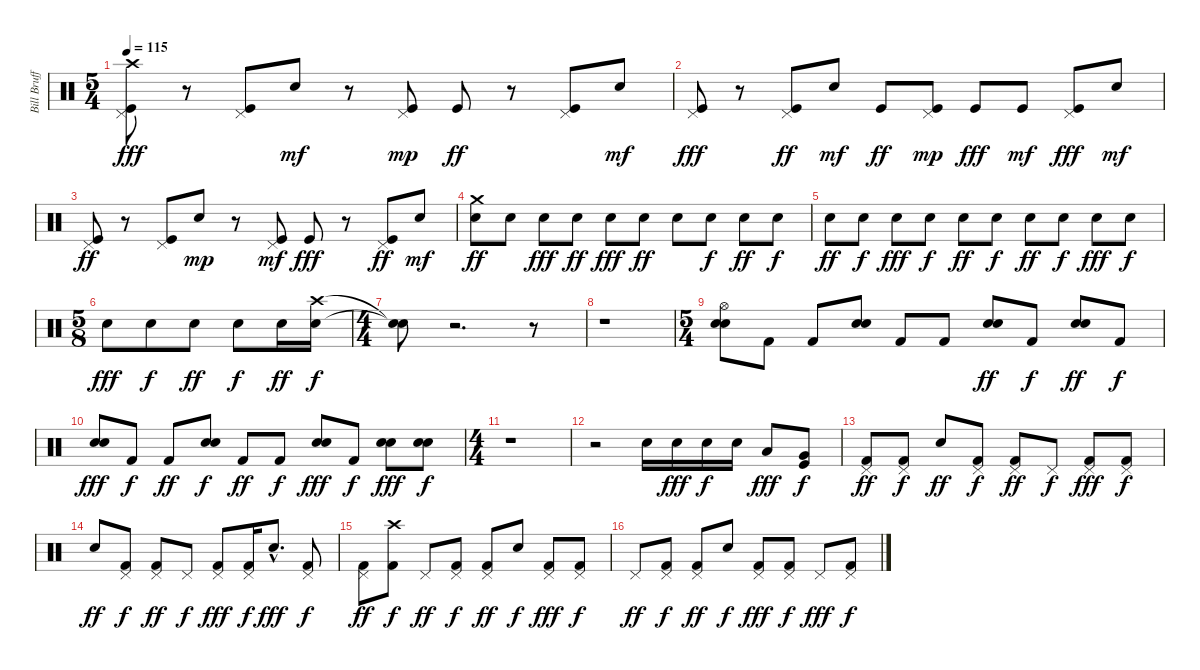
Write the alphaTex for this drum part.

\track ("Bill Brufford Drums" "Bill Bruff") {instrument percussion}
\staff {score}
\articulation defaults
\ts (5 4)
\tempo 115
\clef neutral
\ks c
("Crash high (hit)" "Pedal Hi-Hat (hit)" "Kick (hit)").8{dy fff} r.8 ("Pedal Hi-Hat (hit)" "Kick (hit)").8 "Electric Snare (hit)".8{dy mf} r.8 ("Pedal Hi-Hat (hit)" "Kick (hit)").8{dy mp} "Kick (hit)".8{dy ff} r.8 ("Pedal Hi-Hat (hit)" "Kick (hit)").8 "Electric Snare (hit)".8{dy mf} |
("Pedal Hi-Hat (hit)" "Kick (hit)").8{dy fff} r.8 ("Pedal Hi-Hat (hit)" "Kick (hit)").8{dy ff} "Electric Snare (hit)".8{dy mf} "Kick (hit)".8{dy ff} ("Pedal Hi-Hat (hit)" "Kick (hit)").8{dy mp} "Kick (hit)".8{dy fff} "Kick (hit)".8{dy mf} ("Pedal Hi-Hat (hit)" "Kick (hit)").8{dy fff} "Electric Snare (hit)".8{dy mf} |
("Pedal Hi-Hat (hit)" "Kick (hit)").8{dy ff} r.8 ("Pedal Hi-Hat (hit)" "Kick (hit)").8 "Electric Snare (hit)".8{dy mp} r.8 ("Pedal Hi-Hat (hit)" "Kick (hit)").8{dy mf} "Kick (hit)".8{dy fff} r.8 ("Pedal Hi-Hat (hit)" "Kick (hit)").8{dy ff} "Electric Snare (hit)".8{dy mf} |
("Crash medium (hit)" "Snare (hit) 2").8{dy ff} "Snare (hit) 2".8 "Snare (hit) 2".8{dy fff} "Snare (hit) 2".8{dy ff} "Snare (hit) 2".8{dy fff} "Snare (hit) 2".8{dy ff} "Snare (hit) 2".8 "Snare (hit) 2".8{dy f} "Snare (hit) 2".8{dy ff} "Snare (hit) 2".8{dy f} |
"Snare (hit) 2".8{dy ff} "Snare (hit) 2".8{dy f} "Snare (hit) 2".8{dy fff} "Snare (hit) 2".8{dy f} "Snare (hit) 2".8{dy ff} "Snare (hit) 2".8{dy f} "Snare (hit) 2".8{dy ff} "Snare (hit) 2".8{dy f} "Snare (hit) 2".8{dy fff} "Snare (hit) 2".8{dy f} |
\ts (5 8)
"Snare (hit) 2".8{dy fff} "Snare (hit) 2".8{dy f} "Snare (hit) 2".8{dy ff} "Snare (hit) 2".8{dy f} "Electric Snare (hit)".16{dy ff} ("Crash high (hit)" "Snare (hit) 2").16{dy f} |
\ts (4 4)
("Snare (hit)"{t} "Snare (hit)"{t}).8 r.2{d} r.8 |
r.1 |
\ts (5 4)
("Snare (hit) 2" "Hi-Hat (open)" "Electric Snare (hit)").8 "Kick (hit) 2".8 "Kick (hit) 2".8 ("Electric Snare (hit)" "Snare (hit) 2").8 "Kick (hit) 2".8 "Kick (hit) 2".8 ("Snare (hit) 2" "Electric Snare (hit)").8{dy ff} "Kick (hit) 2".8{dy f} ("Snare (hit) 2" "Electric Snare (hit)").8{dy ff} "Kick (hit) 2".8{dy f} |
("Snare (hit) 2" "Electric Snare (hit)").8{dy fff} "Kick (hit) 2".8{dy f} "Kick (hit) 2".8{dy ff} ("Snare (hit) 2" "Electric Snare (hit)").8{dy f} "Kick (hit) 2".8{dy ff} "Kick (hit) 2".8{dy f} ("Electric Snare (hit)" "Snare (hit) 2").8{dy fff} "Kick (hit) 2".8{dy f} ("Snare (hit) 2" "Electric Snare (hit)").8{dy fff} ("Electric Snare (hit)" "Snare (hit) 2").8{dy f} |
\ts (4 4)
r.1 |
r.2 "Electric Snare (hit)".16 "Electric Snare (hit)".16{dy fff} "Electric Snare (hit)".16{dy f} "Electric Snare (hit)".16 "Low Tom (hit)".8{dy fff} ("Very Low Tom (hit)" "Kick (hit)").8{dy f} |
("Pedal Hi-Hat (hit)" "Kick (hit) 2").8{dy ff} ("Pedal Hi-Hat (hit)" "Kick (hit) 2").8{dy f} "Electric Snare (hit)".8{dy ff} ("Pedal Hi-Hat (hit)" "Kick (hit) 2").8{dy f} ("Pedal Hi-Hat (hit)" "Kick (hit) 2").8{dy ff} "Pedal Hi-Hat (hit)".8{dy f} ("Pedal Hi-Hat (hit)" "Kick (hit) 2").8{dy fff} ("Pedal Hi-Hat (hit)" "Kick (hit) 2").8{dy f} |
"Electric Snare (hit)".8{dy ff} ("Pedal Hi-Hat (hit)" "Kick (hit) 2").8{dy f} ("Pedal Hi-Hat (hit)" "Kick (hit) 2").8{dy ff} "Pedal Hi-Hat (hit)".8{dy f} ("Pedal Hi-Hat (hit)" "Kick (hit) 2").8{dy fff} ("Pedal Hi-Hat (hit)" "Kick (hit) 2").16{dy f} "Electric Snare (hit)"{hac}.8{d dy fff} ("Pedal Hi-Hat (hit)" "Kick (hit) 2").8{dy f} |
("Pedal Hi-Hat (hit)" "Kick (hit) 2").8{dy ff} ("Crash high (hit)" "Kick (hit) 2").8{dy f} "Pedal Hi-Hat (hit)".8{dy ff} ("Pedal Hi-Hat (hit)" "Kick (hit) 2").8{dy f} ("Pedal Hi-Hat (hit)" "Kick (hit) 2").8{dy ff} "Electric Snare (hit)".8{dy f} ("Pedal Hi-Hat (hit)" "Kick (hit) 2").8{dy fff} ("Pedal Hi-Hat (hit)" "Kick (hit) 2").8{dy f} |
"Pedal Hi-Hat (hit)".8{dy ff} ("Pedal Hi-Hat (hit)" "Kick (hit) 2").8{dy f} ("Pedal Hi-Hat (hit)" "Kick (hit) 2").8{dy ff} "Electric Snare (hit)".8{dy f} ("Pedal Hi-Hat (hit)" "Kick (hit) 2").8{dy fff} ("Pedal Hi-Hat (hit)" "Kick (hit) 2").8{dy f} "Pedal Hi-Hat (hit)".8{dy fff} ("Pedal Hi-Hat (hit)" "Kick (hit) 2").8{dy f}
